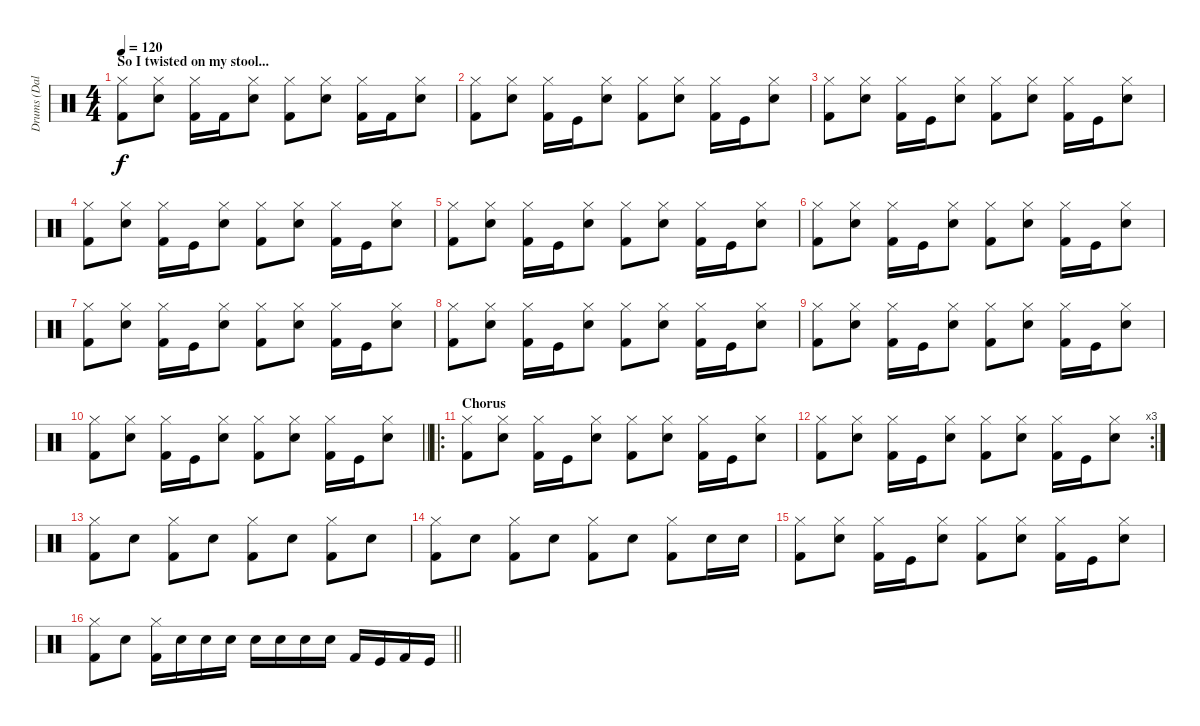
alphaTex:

\track ("Drums (Dalton Black)" "Drums (Dal") {instrument percussion}
\staff {score}
\articulation defaults
\ts (4 4)
\section ("" "So I twisted on my stool...")
\tempo 120
\clef neutral
\ks c
("Hi-Hat (closed)" "Kick (hit) 2").8{dy f} ("Hi-Hat (closed)" "Electric Snare (hit)").8 ("Hi-Hat (closed)" "Kick (hit) 2").16 "Kick (hit) 2".16 ("Hi-Hat (closed)" "Electric Snare (hit)").8 ("Hi-Hat (closed)" "Kick (hit) 2").8 ("Hi-Hat (closed)" "Electric Snare (hit)").8 ("Hi-Hat (closed)" "Kick (hit) 2").16 "Kick (hit) 2".16 ("Hi-Hat (closed)" "Electric Snare (hit)").8 |
("Hi-Hat (closed)" "Kick (hit) 2").8 ("Hi-Hat (closed)" "Electric Snare (hit)").8 ("Hi-Hat (closed)" "Kick (hit) 2").16 "Kick (hit)".16 ("Hi-Hat (closed)" "Electric Snare (hit)").8 ("Hi-Hat (closed)" "Kick (hit) 2").8 ("Hi-Hat (closed)" "Electric Snare (hit)").8 ("Hi-Hat (closed)" "Kick (hit) 2").16 "Kick (hit)".16 ("Hi-Hat (closed)" "Electric Snare (hit)").8 |
("Hi-Hat (closed)" "Kick (hit) 2").8 ("Hi-Hat (closed)" "Electric Snare (hit)").8 ("Hi-Hat (closed)" "Kick (hit) 2").16 "Kick (hit)".16 ("Hi-Hat (closed)" "Electric Snare (hit)").8 ("Hi-Hat (closed)" "Kick (hit) 2").8 ("Hi-Hat (closed)" "Electric Snare (hit)").8 ("Hi-Hat (closed)" "Kick (hit) 2").16 "Kick (hit)".16 ("Hi-Hat (closed)" "Electric Snare (hit)").8 |
("Hi-Hat (closed)" "Kick (hit) 2").8 ("Hi-Hat (closed)" "Electric Snare (hit)").8 ("Hi-Hat (closed)" "Kick (hit) 2").16 "Kick (hit)".16 ("Hi-Hat (closed)" "Electric Snare (hit)").8 ("Hi-Hat (closed)" "Kick (hit) 2").8 ("Hi-Hat (closed)" "Electric Snare (hit)").8 ("Hi-Hat (closed)" "Kick (hit) 2").16 "Kick (hit)".16 ("Hi-Hat (closed)" "Electric Snare (hit)").8 |
("Hi-Hat (closed)" "Kick (hit) 2").8 ("Hi-Hat (closed)" "Electric Snare (hit)").8 ("Hi-Hat (closed)" "Kick (hit) 2").16 "Kick (hit)".16 ("Hi-Hat (closed)" "Electric Snare (hit)").8 ("Hi-Hat (closed)" "Kick (hit) 2").8 ("Hi-Hat (closed)" "Electric Snare (hit)").8 ("Hi-Hat (closed)" "Kick (hit) 2").16 "Kick (hit)".16 ("Hi-Hat (closed)" "Electric Snare (hit)").8 |
("Hi-Hat (closed)" "Kick (hit) 2").8 ("Hi-Hat (closed)" "Electric Snare (hit)").8 ("Hi-Hat (closed)" "Kick (hit) 2").16 "Kick (hit)".16 ("Hi-Hat (closed)" "Electric Snare (hit)").8 ("Hi-Hat (closed)" "Kick (hit) 2").8 ("Hi-Hat (closed)" "Electric Snare (hit)").8 ("Hi-Hat (closed)" "Kick (hit) 2").16 "Kick (hit)".16 ("Hi-Hat (closed)" "Electric Snare (hit)").8 |
("Hi-Hat (closed)" "Kick (hit) 2").8 ("Hi-Hat (closed)" "Electric Snare (hit)").8 ("Hi-Hat (closed)" "Kick (hit) 2").16 "Kick (hit)".16 ("Hi-Hat (closed)" "Electric Snare (hit)").8 ("Hi-Hat (closed)" "Kick (hit) 2").8 ("Hi-Hat (closed)" "Electric Snare (hit)").8 ("Hi-Hat (closed)" "Kick (hit) 2").16 "Kick (hit)".16 ("Hi-Hat (closed)" "Electric Snare (hit)").8 |
("Hi-Hat (closed)" "Kick (hit) 2").8 ("Hi-Hat (closed)" "Electric Snare (hit)").8 ("Hi-Hat (closed)" "Kick (hit) 2").16 "Kick (hit)".16 ("Hi-Hat (closed)" "Electric Snare (hit)").8 ("Hi-Hat (closed)" "Kick (hit) 2").8 ("Hi-Hat (closed)" "Electric Snare (hit)").8 ("Hi-Hat (closed)" "Kick (hit) 2").16 "Kick (hit)".16 ("Hi-Hat (closed)" "Electric Snare (hit)").8 |
("Hi-Hat (closed)" "Kick (hit) 2").8 ("Hi-Hat (closed)" "Electric Snare (hit)").8 ("Hi-Hat (closed)" "Kick (hit) 2").16 "Kick (hit)".16 ("Hi-Hat (closed)" "Electric Snare (hit)").8 ("Hi-Hat (closed)" "Kick (hit) 2").8 ("Hi-Hat (closed)" "Electric Snare (hit)").8 ("Hi-Hat (closed)" "Kick (hit) 2").16 "Kick (hit)".16 ("Hi-Hat (closed)" "Electric Snare (hit)").8 |
\barLineRight lightlight
("Hi-Hat (closed)" "Kick (hit) 2").8 ("Hi-Hat (closed)" "Electric Snare (hit)").8 ("Hi-Hat (closed)" "Kick (hit) 2").16 "Kick (hit)".16 ("Hi-Hat (closed)" "Electric Snare (hit)").8 ("Hi-Hat (closed)" "Kick (hit) 2").8 ("Hi-Hat (closed)" "Electric Snare (hit)").8 ("Hi-Hat (closed)" "Kick (hit) 2").16 "Kick (hit)".16 ("Hi-Hat (closed)" "Electric Snare (hit)").8 |
\ro
\section ("" "Chorus")
("Hi-Hat (closed)" "Kick (hit) 2").8 ("Hi-Hat (closed)" "Electric Snare (hit)").8 ("Hi-Hat (closed)" "Kick (hit) 2").16 "Kick (hit)".16 ("Hi-Hat (closed)" "Electric Snare (hit)").8 ("Hi-Hat (closed)" "Kick (hit) 2").8 ("Hi-Hat (closed)" "Electric Snare (hit)").8 ("Hi-Hat (closed)" "Kick (hit) 2").16 "Kick (hit)".16 ("Hi-Hat (closed)" "Electric Snare (hit)").8 |
\rc 3
("Hi-Hat (closed)" "Kick (hit) 2").8 ("Hi-Hat (closed)" "Electric Snare (hit)").8 ("Hi-Hat (closed)" "Kick (hit) 2").16 "Kick (hit)".16 ("Hi-Hat (closed)" "Electric Snare (hit)").8 ("Hi-Hat (closed)" "Kick (hit) 2").8 ("Hi-Hat (closed)" "Electric Snare (hit)").8 ("Hi-Hat (closed)" "Kick (hit) 2").16 "Kick (hit)".16 ("Hi-Hat (closed)" "Electric Snare (hit)").8 |
("Hi-Hat (closed)" "Kick (hit) 2").8 "Electric Snare (hit)".8 ("Hi-Hat (closed)" "Kick (hit) 2").8 "Electric Snare (hit)".8 ("Hi-Hat (closed)" "Kick (hit) 2").8 "Electric Snare (hit)".8 ("Hi-Hat (closed)" "Kick (hit) 2").8 "Electric Snare (hit)".8 |
("Hi-Hat (closed)" "Kick (hit) 2").8 "Electric Snare (hit)".8 ("Hi-Hat (closed)" "Kick (hit) 2").8 "Electric Snare (hit)".8 ("Hi-Hat (closed)" "Kick (hit) 2").8 "Electric Snare (hit)".8 ("Hi-Hat (closed)" "Kick (hit) 2").8 "Electric Snare (hit)".16 "Electric Snare (hit)".16 |
("Hi-Hat (closed)" "Kick (hit) 2").8 ("Hi-Hat (closed)" "Electric Snare (hit)").8 ("Hi-Hat (closed)" "Kick (hit) 2").16 "Kick (hit)".16 ("Hi-Hat (closed)" "Electric Snare (hit)").8 ("Hi-Hat (closed)" "Kick (hit) 2").8 ("Hi-Hat (closed)" "Electric Snare (hit)").8 ("Hi-Hat (closed)" "Kick (hit) 2").16 "Kick (hit)".16 ("Hi-Hat (closed)" "Electric Snare (hit)").8 |
\barLineRight lightlight
("Hi-Hat (closed)" "Kick (hit) 2").8 "Electric Snare (hit)".8 ("Hi-Hat (closed)" "Kick (hit) 2").16 "Electric Snare (hit)".16 "Electric Snare (hit)".16 "Electric Snare (hit)".16 "Electric Snare (hit)".16 "Electric Snare (hit)".16 "Electric Snare (hit)".16 "Electric Snare (hit)".16 "Kick (hit) 2".16 "Kick (hit)".16 "Kick (hit) 2".16 "Kick (hit)".16
